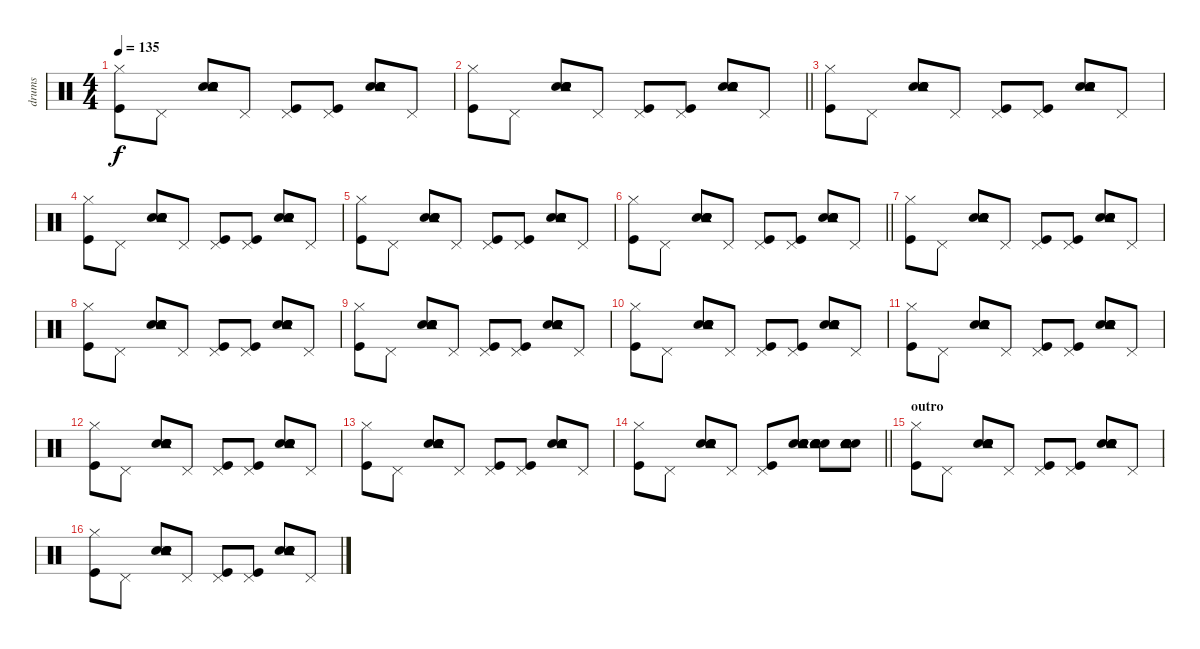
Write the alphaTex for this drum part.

\track ("drums" "drums") {instrument percussion}
\staff {score}
\articulation defaults
\ts (4 4)
\tempo 135
\clef neutral
\ks c
("Kick (hit)" "Hi-Hat (closed)").8{dy f} "Pedal Hi-Hat (hit)".8 ("Snare (hit) 2" "Snare (hit) 2" "Electric Snare (hit)" "Electric Snare (hit)" "Tambourine (hit)").8 "Pedal Hi-Hat (hit)".8 ("Kick (hit)" "Pedal Hi-Hat (hit)").8 ("Kick (hit)" "Pedal Hi-Hat (hit)").8 ("Snare (hit) 2" "Snare (hit) 2" "Electric Snare (hit)" "Electric Snare (hit)" "Tambourine (hit)").8 "Pedal Hi-Hat (hit)".8 |
\barLineRight lightlight
("Kick (hit)" "Hi-Hat (closed)").8 "Pedal Hi-Hat (hit)".8 ("Snare (hit) 2" "Snare (hit) 2" "Electric Snare (hit)" "Electric Snare (hit)" "Tambourine (hit)").8 "Pedal Hi-Hat (hit)".8 ("Kick (hit)" "Pedal Hi-Hat (hit)").8 ("Kick (hit)" "Pedal Hi-Hat (hit)").8 ("Snare (hit) 2" "Snare (hit) 2" "Electric Snare (hit)" "Electric Snare (hit)" "Tambourine (hit)").8 "Pedal Hi-Hat (hit)".8 |
("Kick (hit)" "Hi-Hat (closed)").8 "Pedal Hi-Hat (hit)".8 ("Snare (hit) 2" "Snare (hit) 2" "Electric Snare (hit)" "Electric Snare (hit)" "Tambourine (hit)").8 "Pedal Hi-Hat (hit)".8 ("Kick (hit)" "Pedal Hi-Hat (hit)").8 ("Kick (hit)" "Pedal Hi-Hat (hit)").8 ("Snare (hit) 2" "Snare (hit) 2" "Electric Snare (hit)" "Electric Snare (hit)" "Tambourine (hit)").8 "Pedal Hi-Hat (hit)".8 |
("Kick (hit)" "Hi-Hat (closed)").8 "Pedal Hi-Hat (hit)".8 ("Snare (hit) 2" "Snare (hit) 2" "Electric Snare (hit)" "Electric Snare (hit)" "Tambourine (hit)").8 "Pedal Hi-Hat (hit)".8 ("Kick (hit)" "Pedal Hi-Hat (hit)").8 ("Kick (hit)" "Pedal Hi-Hat (hit)").8 ("Snare (hit) 2" "Snare (hit) 2" "Electric Snare (hit)" "Electric Snare (hit)" "Tambourine (hit)").8 "Pedal Hi-Hat (hit)".8 |
("Kick (hit)" "Hi-Hat (closed)").8 "Pedal Hi-Hat (hit)".8 ("Snare (hit) 2" "Snare (hit) 2" "Electric Snare (hit)" "Electric Snare (hit)" "Tambourine (hit)").8 "Pedal Hi-Hat (hit)".8 ("Kick (hit)" "Pedal Hi-Hat (hit)").8 ("Kick (hit)" "Pedal Hi-Hat (hit)").8 ("Snare (hit) 2" "Snare (hit) 2" "Electric Snare (hit)" "Electric Snare (hit)" "Tambourine (hit)").8 "Pedal Hi-Hat (hit)".8 |
\barLineRight lightlight
("Kick (hit)" "Hi-Hat (closed)").8 "Pedal Hi-Hat (hit)".8 ("Snare (hit) 2" "Snare (hit) 2" "Electric Snare (hit)" "Electric Snare (hit)" "Tambourine (hit)").8 "Pedal Hi-Hat (hit)".8 ("Kick (hit)" "Pedal Hi-Hat (hit)").8 ("Kick (hit)" "Pedal Hi-Hat (hit)").8 ("Snare (hit) 2" "Snare (hit) 2" "Electric Snare (hit)" "Electric Snare (hit)" "Tambourine (hit)").8 "Pedal Hi-Hat (hit)".8 |
("Kick (hit)" "Hi-Hat (closed)").8 "Pedal Hi-Hat (hit)".8 ("Snare (hit) 2" "Snare (hit) 2" "Electric Snare (hit)" "Electric Snare (hit)" "Tambourine (hit)").8 "Pedal Hi-Hat (hit)".8 ("Kick (hit)" "Pedal Hi-Hat (hit)").8 ("Kick (hit)" "Pedal Hi-Hat (hit)").8 ("Snare (hit) 2" "Snare (hit) 2" "Electric Snare (hit)" "Electric Snare (hit)" "Tambourine (hit)").8 "Pedal Hi-Hat (hit)".8 |
("Kick (hit)" "Hi-Hat (closed)").8 "Pedal Hi-Hat (hit)".8 ("Snare (hit) 2" "Snare (hit) 2" "Electric Snare (hit)" "Electric Snare (hit)" "Tambourine (hit)").8 "Pedal Hi-Hat (hit)".8 ("Kick (hit)" "Pedal Hi-Hat (hit)").8 ("Kick (hit)" "Pedal Hi-Hat (hit)").8 ("Snare (hit) 2" "Snare (hit) 2" "Electric Snare (hit)" "Electric Snare (hit)" "Tambourine (hit)").8 "Pedal Hi-Hat (hit)".8 |
("Kick (hit)" "Hi-Hat (closed)").8 "Pedal Hi-Hat (hit)".8 ("Snare (hit) 2" "Snare (hit) 2" "Electric Snare (hit)" "Electric Snare (hit)" "Tambourine (hit)").8 "Pedal Hi-Hat (hit)".8 ("Kick (hit)" "Pedal Hi-Hat (hit)").8 ("Kick (hit)" "Pedal Hi-Hat (hit)").8 ("Snare (hit) 2" "Snare (hit) 2" "Electric Snare (hit)" "Electric Snare (hit)" "Tambourine (hit)").8 "Pedal Hi-Hat (hit)".8 |
("Kick (hit)" "Hi-Hat (closed)").8 "Pedal Hi-Hat (hit)".8 ("Snare (hit) 2" "Snare (hit) 2" "Electric Snare (hit)" "Electric Snare (hit)" "Tambourine (hit)").8 "Pedal Hi-Hat (hit)".8 ("Kick (hit)" "Pedal Hi-Hat (hit)").8 ("Kick (hit)" "Pedal Hi-Hat (hit)").8 ("Snare (hit) 2" "Snare (hit) 2" "Electric Snare (hit)" "Electric Snare (hit)" "Tambourine (hit)").8 "Pedal Hi-Hat (hit)".8 |
("Kick (hit)" "Hi-Hat (closed)").8 "Pedal Hi-Hat (hit)".8 ("Snare (hit) 2" "Snare (hit) 2" "Electric Snare (hit)" "Electric Snare (hit)" "Tambourine (hit)").8 "Pedal Hi-Hat (hit)".8 ("Kick (hit)" "Pedal Hi-Hat (hit)").8 ("Kick (hit)" "Pedal Hi-Hat (hit)").8 ("Snare (hit) 2" "Snare (hit) 2" "Electric Snare (hit)" "Electric Snare (hit)" "Tambourine (hit)").8 "Pedal Hi-Hat (hit)".8 |
("Kick (hit)" "Hi-Hat (closed)").8 "Pedal Hi-Hat (hit)".8 ("Snare (hit) 2" "Snare (hit) 2" "Electric Snare (hit)" "Electric Snare (hit)" "Tambourine (hit)").8 "Pedal Hi-Hat (hit)".8 ("Kick (hit)" "Pedal Hi-Hat (hit)").8 ("Kick (hit)" "Pedal Hi-Hat (hit)").8 ("Snare (hit) 2" "Snare (hit) 2" "Electric Snare (hit)" "Electric Snare (hit)" "Tambourine (hit)").8 "Pedal Hi-Hat (hit)".8 |
("Kick (hit)" "Hi-Hat (closed)").8 "Pedal Hi-Hat (hit)".8 ("Snare (hit) 2" "Snare (hit) 2" "Electric Snare (hit)" "Electric Snare (hit)" "Tambourine (hit)").8 "Pedal Hi-Hat (hit)".8 ("Kick (hit)" "Pedal Hi-Hat (hit)").8 ("Kick (hit)" "Pedal Hi-Hat (hit)").8 ("Snare (hit) 2" "Snare (hit) 2" "Electric Snare (hit)" "Electric Snare (hit)" "Tambourine (hit)").8 "Pedal Hi-Hat (hit)".8 |
\barLineRight lightlight
("Kick (hit)" "Hi-Hat (closed)").8 "Pedal Hi-Hat (hit)".8 ("Snare (hit) 2" "Snare (hit) 2" "Electric Snare (hit)" "Electric Snare (hit)" "Tambourine (hit)").8 "Pedal Hi-Hat (hit)".8 ("Kick (hit)" "Pedal Hi-Hat (hit)").8 ("Snare (hit) 2" "Snare (hit) 2" "Electric Snare (hit)" "Electric Snare (hit)" "Tambourine (hit)").8 ("Snare (hit) 2" "Snare (hit) 2" "Electric Snare (hit)" "Electric Snare (hit)" "Tambourine (hit)").8 ("Snare (hit) 2" "Snare (hit) 2" "Electric Snare (hit)" "Electric Snare (hit)" "Tambourine (hit)").8 |
\section ("" "outro")
("Kick (hit)" "Hi-Hat (closed)").8 "Pedal Hi-Hat (hit)".8 ("Snare (hit) 2" "Snare (hit) 2" "Electric Snare (hit)" "Electric Snare (hit)" "Tambourine (hit)").8 "Pedal Hi-Hat (hit)".8 ("Kick (hit)" "Pedal Hi-Hat (hit)").8 ("Kick (hit)" "Pedal Hi-Hat (hit)").8 ("Snare (hit) 2" "Snare (hit) 2" "Electric Snare (hit)" "Electric Snare (hit)" "Tambourine (hit)").8 "Pedal Hi-Hat (hit)".8 |
("Kick (hit)" "Hi-Hat (closed)").8 "Pedal Hi-Hat (hit)".8 ("Snare (hit) 2" "Snare (hit) 2" "Electric Snare (hit)" "Electric Snare (hit)" "Tambourine (hit)").8 "Pedal Hi-Hat (hit)".8 ("Kick (hit)" "Pedal Hi-Hat (hit)").8 ("Kick (hit)" "Pedal Hi-Hat (hit)").8 ("Snare (hit) 2" "Snare (hit) 2" "Electric Snare (hit)" "Electric Snare (hit)" "Tambourine (hit)").8 "Pedal Hi-Hat (hit)".8
